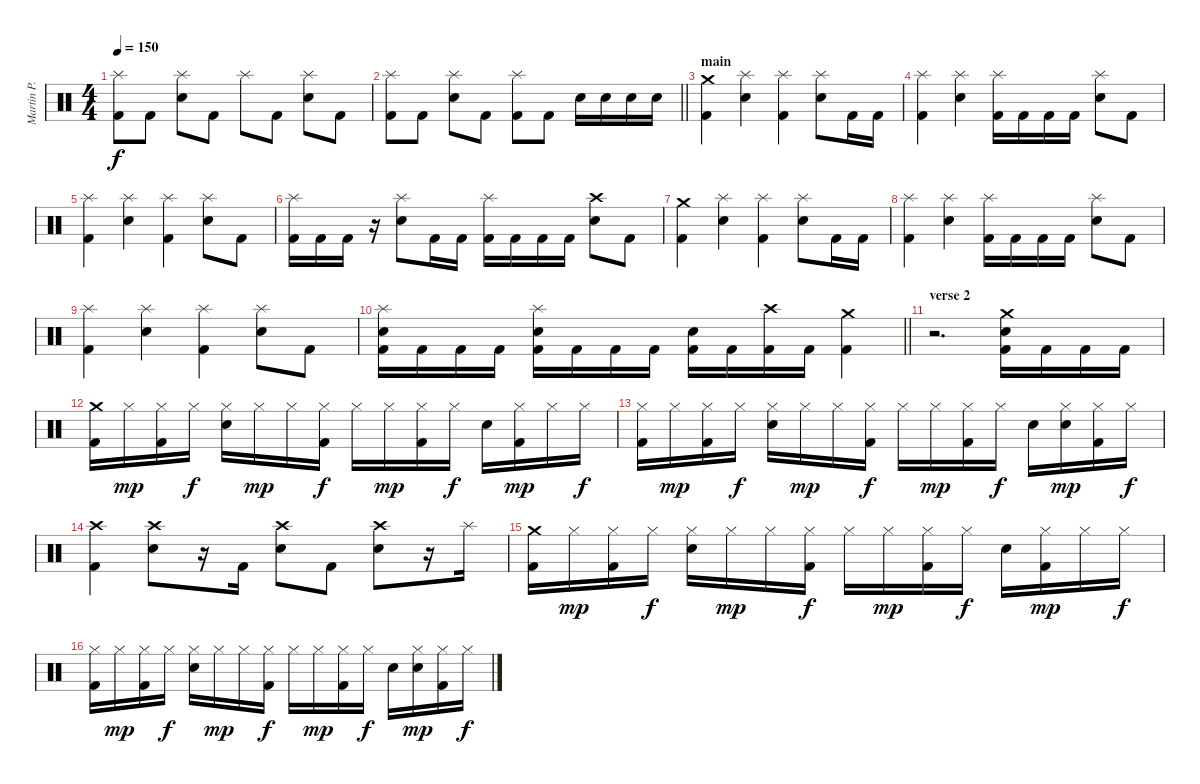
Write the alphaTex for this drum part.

\track ("Martin P." "Martin P.") {instrument percussion}
\staff {score}
\articulation defaults
\ts (4 4)
\tempo 150
\clef neutral
\ks c
("Splash (hit)" "Kick (hit) 2").8{dy f} "Kick (hit) 2".8 ("Electric Snare (hit)" "Splash (hit)").8 "Kick (hit) 2".8 "Splash (hit)".8 "Kick (hit) 2".8 ("Electric Snare (hit)" "Splash (hit)").8 "Kick (hit) 2".8 |
\barLineRight lightlight
("Kick (hit) 2" "Splash (hit)").8 "Kick (hit) 2".8 ("Electric Snare (hit)" "Splash (hit)").8 "Kick (hit) 2".8 ("Kick (hit) 2" "Splash (hit)").8 "Kick (hit) 2".8 "Electric Snare (hit)".16 "Electric Snare (hit)".16 "Electric Snare (hit)".16 "Electric Snare (hit)".16 |
\section ("" "main")
("Crash medium (hit)" "Kick (hit) 2").4 ("Splash (hit)" "Electric Snare (hit)").4 ("Splash (hit)" "Kick (hit) 2").4 ("Electric Snare (hit)" "Splash (hit)").8 "Kick (hit) 2".16 "Kick (hit) 2".16 |
("Splash (hit)" "Kick (hit) 2").4 ("Splash (hit)" "Electric Snare (hit)").4 ("Splash (hit)" "Kick (hit) 2").16 "Kick (hit) 2".16 "Kick (hit) 2".16 "Kick (hit) 2".16 ("Electric Snare (hit)" "Splash (hit)").8 "Kick (hit) 2".8 |
("Splash (hit)" "Kick (hit) 2").4 ("Splash (hit)" "Electric Snare (hit)").4 ("Splash (hit)" "Kick (hit) 2").4 ("Electric Snare (hit)" "Splash (hit)").8 "Kick (hit) 2".8 |
("Splash (hit)" "Kick (hit) 2").16 "Kick (hit) 2".16 "Kick (hit) 2".16 r.16 ("Splash (hit)" "Electric Snare (hit)").8 "Kick (hit) 2".16 "Kick (hit) 2".16 ("Splash (hit)" "Kick (hit) 2").16 "Kick (hit) 2".16 "Kick (hit) 2".16 "Kick (hit) 2".16 ("Electric Snare (hit)" "Crash high (hit)").8 "Kick (hit) 2".8 |
("Crash medium (hit)" "Kick (hit) 2").4 ("Splash (hit)" "Electric Snare (hit)").4 ("Splash (hit)" "Kick (hit) 2").4 ("Electric Snare (hit)" "Splash (hit)").8 "Kick (hit) 2".16 "Kick (hit) 2".16 |
("Splash (hit)" "Kick (hit) 2").4 ("Splash (hit)" "Electric Snare (hit)").4 ("Splash (hit)" "Kick (hit) 2").16 "Kick (hit) 2".16 "Kick (hit) 2".16 "Kick (hit) 2".16 ("Electric Snare (hit)" "Splash (hit)").8 "Kick (hit) 2".8 |
("Splash (hit)" "Kick (hit) 2").4 ("Splash (hit)" "Electric Snare (hit)").4 ("Splash (hit)" "Kick (hit) 2").4 ("Electric Snare (hit)" "Splash (hit)").8 "Kick (hit) 2".8 |
\barLineRight lightlight
("Splash (hit)" "Electric Snare (hit)" "Kick (hit) 2").16 "Kick (hit) 2".16 "Kick (hit) 2".16 "Kick (hit) 2".16 ("Splash (hit)" "Electric Snare (hit)" "Kick (hit) 2").16 "Kick (hit) 2".16 "Kick (hit) 2".16 "Kick (hit) 2".16 ("Electric Snare (hit)" "Kick (hit) 2").16 "Kick (hit) 2".16 ("Crash high (hit)" "Kick (hit) 2").16 "Kick (hit) 2".16 ("Crash medium (hit)" "Kick (hit) 2").4 |
\section ("" "verse 2")
r.2{d} ("Crash medium (hit)" "Electric Snare (hit)" "Kick (hit) 2").16 "Kick (hit) 2".16 "Kick (hit) 2".16 "Kick (hit) 2".16 |
("Crash medium (hit)" "Kick (hit) 2").16 "Hi-Hat (closed)".16{dy mp} ("Hi-Hat (closed)" "Kick (hit) 2").16 "Hi-Hat (closed)".16{dy f} ("Hi-Hat (closed)" "Electric Snare (hit)").16 "Hi-Hat (closed)".16{dy mp} "Hi-Hat (closed)".16 ("Hi-Hat (closed)" "Kick (hit) 2").16{dy f} "Hi-Hat (closed)".16 "Hi-Hat (closed)".16{dy mp} ("Hi-Hat (closed)" "Kick (hit) 2").16 "Hi-Hat (closed)".16{dy f} "Electric Snare (hit)".16 ("Hi-Hat (closed)" "Kick (hit) 2").16{dy mp} "Hi-Hat (closed)".16 "Hi-Hat (closed)".16{dy f} |
("Hi-Hat (closed)" "Kick (hit) 2").16 "Hi-Hat (closed)".16{dy mp} ("Hi-Hat (closed)" "Kick (hit) 2").16 "Hi-Hat (closed)".16{dy f} ("Hi-Hat (closed)" "Electric Snare (hit)").16 "Hi-Hat (closed)".16{dy mp} "Hi-Hat (closed)".16 ("Hi-Hat (closed)" "Kick (hit) 2").16{dy f} "Hi-Hat (closed)".16 "Hi-Hat (closed)".16{dy mp} ("Hi-Hat (closed)" "Kick (hit) 2").16 "Hi-Hat (closed)".16{dy f} "Electric Snare (hit)".16 ("Hi-Hat (closed)" "Electric Snare (hit)").16{dy mp} ("Hi-Hat (closed)" "Kick (hit) 2").16 "Hi-Hat (closed)".16{dy f} |
("Crash high (hit)" "Kick (hit) 2").4 ("Crash high (hit)" "Electric Snare (hit)").8 r.16 "Kick (hit) 2".16 ("Crash high (hit)" "Electric Snare (hit)").8 "Kick (hit) 2".8 ("Crash high (hit)" "Electric Snare (hit)").8 r.16 "Splash (hit)".16 |
("Crash medium (hit)" "Kick (hit) 2").16 "Hi-Hat (closed)".16{dy mp} ("Hi-Hat (closed)" "Kick (hit) 2").16 "Hi-Hat (closed)".16{dy f} ("Hi-Hat (closed)" "Electric Snare (hit)").16 "Hi-Hat (closed)".16{dy mp} "Hi-Hat (closed)".16 ("Hi-Hat (closed)" "Kick (hit) 2").16{dy f} "Hi-Hat (closed)".16 "Hi-Hat (closed)".16{dy mp} ("Hi-Hat (closed)" "Kick (hit) 2").16 "Hi-Hat (closed)".16{dy f} "Electric Snare (hit)".16 ("Hi-Hat (closed)" "Kick (hit) 2").16{dy mp} "Hi-Hat (closed)".16 "Hi-Hat (closed)".16{dy f} |
("Hi-Hat (closed)" "Kick (hit) 2").16 "Hi-Hat (closed)".16{dy mp} ("Hi-Hat (closed)" "Kick (hit) 2").16 "Hi-Hat (closed)".16{dy f} ("Hi-Hat (closed)" "Electric Snare (hit)").16 "Hi-Hat (closed)".16{dy mp} "Hi-Hat (closed)".16 ("Hi-Hat (closed)" "Kick (hit) 2").16{dy f} "Hi-Hat (closed)".16 "Hi-Hat (closed)".16{dy mp} ("Hi-Hat (closed)" "Kick (hit) 2").16 "Hi-Hat (closed)".16{dy f} "Electric Snare (hit)".16 ("Hi-Hat (closed)" "Electric Snare (hit)").16{dy mp} ("Hi-Hat (closed)" "Kick (hit) 2").16 "Hi-Hat (closed)".16{dy f}
